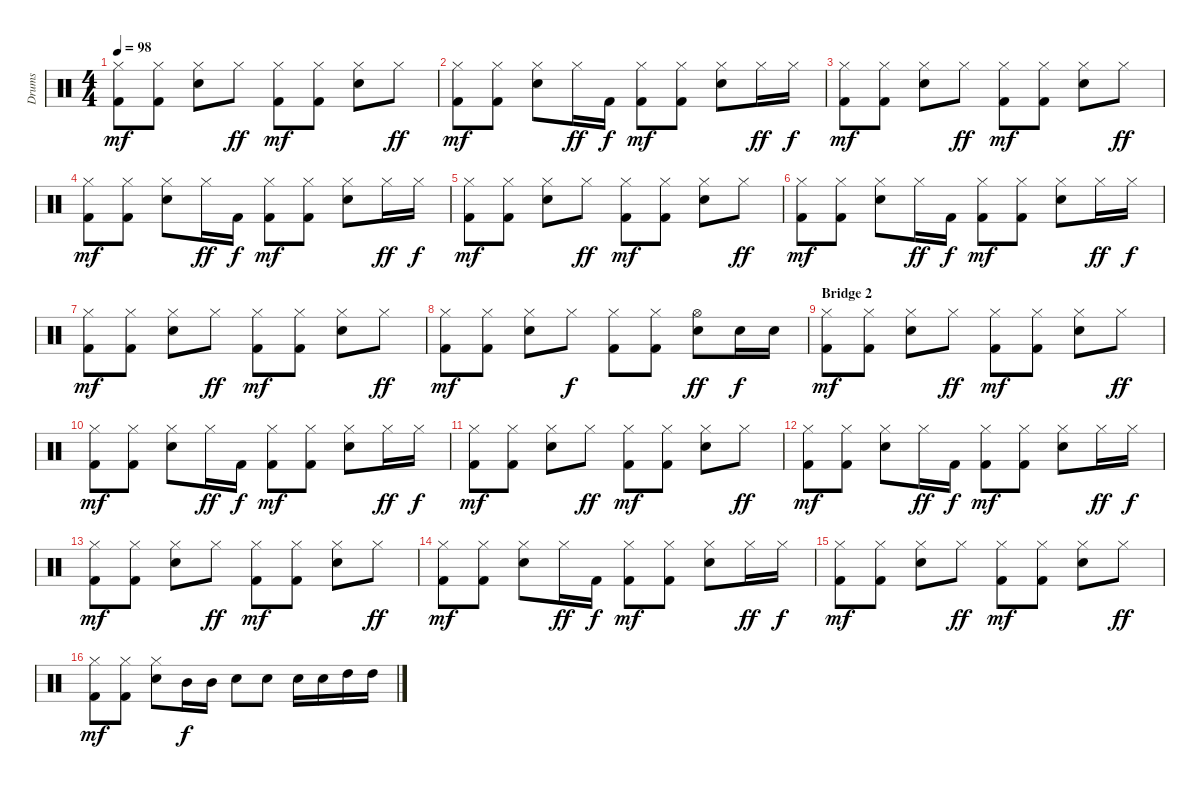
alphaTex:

\track ("Drums" "Drums") {instrument percussion}
\staff {score}
\articulation defaults
\ts (4 4)
\tempo 98
\clef neutral
\ks c
("Hi-Hat (closed)" "Kick (hit) 2").8{dy mf} ("Hi-Hat (closed)" "Kick (hit) 2").8 ("Hi-Hat (closed)" "Snare (hit) 2").8 "Hi-Hat (closed)".8{dy ff} ("Hi-Hat (closed)" "Kick (hit) 2").8{dy mf} ("Hi-Hat (closed)" "Kick (hit) 2").8 ("Hi-Hat (closed)" "Snare (hit) 2").8 "Hi-Hat (closed)".8{dy ff} |
("Hi-Hat (closed)" "Kick (hit) 2").8{dy mf} ("Hi-Hat (closed)" "Kick (hit) 2").8 ("Hi-Hat (closed)" "Snare (hit) 2").8 "Hi-Hat (closed)".16{dy ff} "Kick (hit) 2".16{dy f} ("Hi-Hat (closed)" "Kick (hit) 2").8{dy mf} ("Hi-Hat (closed)" "Kick (hit) 2").8 ("Hi-Hat (closed)" "Snare (hit) 2").8 "Hi-Hat (closed)".16{dy ff} "Hi-Hat (closed)".16{dy f} |
("Hi-Hat (closed)" "Kick (hit) 2").8{dy mf} ("Hi-Hat (closed)" "Kick (hit) 2").8 ("Hi-Hat (closed)" "Snare (hit) 2").8 "Hi-Hat (closed)".8{dy ff} ("Hi-Hat (closed)" "Kick (hit) 2").8{dy mf} ("Hi-Hat (closed)" "Kick (hit) 2").8 ("Hi-Hat (closed)" "Snare (hit) 2").8 "Hi-Hat (closed)".8{dy ff} |
("Hi-Hat (closed)" "Kick (hit) 2").8{dy mf} ("Hi-Hat (closed)" "Kick (hit) 2").8 ("Hi-Hat (closed)" "Snare (hit) 2").8 "Hi-Hat (closed)".16{dy ff} "Kick (hit) 2".16{dy f} ("Hi-Hat (closed)" "Kick (hit) 2").8{dy mf} ("Hi-Hat (closed)" "Kick (hit) 2").8 ("Hi-Hat (closed)" "Snare (hit) 2").8 "Hi-Hat (closed)".16{dy ff} "Hi-Hat (closed)".16{dy f} |
("Hi-Hat (closed)" "Kick (hit) 2").8{dy mf} ("Hi-Hat (closed)" "Kick (hit) 2").8 ("Hi-Hat (closed)" "Snare (hit) 2").8 "Hi-Hat (closed)".8{dy ff} ("Hi-Hat (closed)" "Kick (hit) 2").8{dy mf} ("Hi-Hat (closed)" "Kick (hit) 2").8 ("Hi-Hat (closed)" "Snare (hit) 2").8 "Hi-Hat (closed)".8{dy ff} |
("Hi-Hat (closed)" "Kick (hit) 2").8{dy mf} ("Hi-Hat (closed)" "Kick (hit) 2").8 ("Hi-Hat (closed)" "Snare (hit) 2").8 "Hi-Hat (closed)".16{dy ff} "Kick (hit) 2".16{dy f} ("Hi-Hat (closed)" "Kick (hit) 2").8{dy mf} ("Hi-Hat (closed)" "Kick (hit) 2").8 ("Hi-Hat (closed)" "Snare (hit) 2").8 "Hi-Hat (closed)".16{dy ff} "Hi-Hat (closed)".16{dy f} |
("Hi-Hat (closed)" "Kick (hit) 2").8{dy mf} ("Hi-Hat (closed)" "Kick (hit) 2").8 ("Hi-Hat (closed)" "Snare (hit) 2").8 "Hi-Hat (closed)".8{dy ff} ("Hi-Hat (closed)" "Kick (hit) 2").8{dy mf} ("Hi-Hat (closed)" "Kick (hit) 2").8 ("Hi-Hat (closed)" "Snare (hit) 2").8 "Hi-Hat (closed)".8{dy ff} |
("Hi-Hat (closed)" "Kick (hit) 2").8{dy mf} ("Hi-Hat (closed)" "Kick (hit) 2").8 ("Hi-Hat (closed)" "Snare (hit) 2").8 "Hi-Hat (closed)".8{dy f} ("Hi-Hat (closed)" "Kick (hit) 2").8 ("Hi-Hat (closed)" "Kick (hit) 2").8 ("Hi-Hat (open)" "Snare (hit) 2").8{dy ff} "Snare (hit) 2".16{dy f} "Snare (hit) 2".16 |
\section ("" "Bridge 2")
("Hi-Hat (closed)" "Kick (hit) 2").8{dy mf} ("Hi-Hat (closed)" "Kick (hit) 2").8 ("Hi-Hat (closed)" "Snare (hit) 2").8 "Hi-Hat (closed)".8{dy ff} ("Hi-Hat (closed)" "Kick (hit) 2").8{dy mf} ("Hi-Hat (closed)" "Kick (hit) 2").8 ("Hi-Hat (closed)" "Snare (hit) 2").8 "Hi-Hat (closed)".8{dy ff} |
("Hi-Hat (closed)" "Kick (hit) 2").8{dy mf} ("Hi-Hat (closed)" "Kick (hit) 2").8 ("Hi-Hat (closed)" "Snare (hit) 2").8 "Hi-Hat (closed)".16{dy ff} "Kick (hit) 2".16{dy f} ("Hi-Hat (closed)" "Kick (hit) 2").8{dy mf} ("Hi-Hat (closed)" "Kick (hit) 2").8 ("Hi-Hat (closed)" "Snare (hit) 2").8 "Hi-Hat (closed)".16{dy ff} "Hi-Hat (closed)".16{dy f} |
("Hi-Hat (closed)" "Kick (hit) 2").8{dy mf} ("Hi-Hat (closed)" "Kick (hit) 2").8 ("Hi-Hat (closed)" "Snare (hit) 2").8 "Hi-Hat (closed)".8{dy ff} ("Hi-Hat (closed)" "Kick (hit) 2").8{dy mf} ("Hi-Hat (closed)" "Kick (hit) 2").8 ("Hi-Hat (closed)" "Snare (hit) 2").8 "Hi-Hat (closed)".8{dy ff} |
("Hi-Hat (closed)" "Kick (hit) 2").8{dy mf} ("Hi-Hat (closed)" "Kick (hit) 2").8 ("Hi-Hat (closed)" "Snare (hit) 2").8 "Hi-Hat (closed)".16{dy ff} "Kick (hit) 2".16{dy f} ("Hi-Hat (closed)" "Kick (hit) 2").8{dy mf} ("Hi-Hat (closed)" "Kick (hit) 2").8 ("Hi-Hat (closed)" "Snare (hit) 2").8 "Hi-Hat (closed)".16{dy ff} "Hi-Hat (closed)".16{dy f} |
("Hi-Hat (closed)" "Kick (hit) 2").8{dy mf} ("Hi-Hat (closed)" "Kick (hit) 2").8 ("Hi-Hat (closed)" "Snare (hit) 2").8 "Hi-Hat (closed)".8{dy ff} ("Hi-Hat (closed)" "Kick (hit) 2").8{dy mf} ("Hi-Hat (closed)" "Kick (hit) 2").8 ("Hi-Hat (closed)" "Snare (hit) 2").8 "Hi-Hat (closed)".8{dy ff} |
("Hi-Hat (closed)" "Kick (hit) 2").8{dy mf} ("Hi-Hat (closed)" "Kick (hit) 2").8 ("Hi-Hat (closed)" "Snare (hit) 2").8 "Hi-Hat (closed)".16{dy ff} "Kick (hit) 2".16{dy f} ("Hi-Hat (closed)" "Kick (hit) 2").8{dy mf} ("Hi-Hat (closed)" "Kick (hit) 2").8 ("Hi-Hat (closed)" "Snare (hit) 2").8 "Hi-Hat (closed)".16{dy ff} "Hi-Hat (closed)".16{dy f} |
("Hi-Hat (closed)" "Kick (hit) 2").8{dy mf} ("Hi-Hat (closed)" "Kick (hit) 2").8 ("Hi-Hat (closed)" "Snare (hit) 2").8 "Hi-Hat (closed)".8{dy ff} ("Hi-Hat (closed)" "Kick (hit) 2").8{dy mf} ("Hi-Hat (closed)" "Kick (hit) 2").8 ("Hi-Hat (closed)" "Snare (hit) 2").8 "Hi-Hat (closed)".8{dy ff} |
("Hi-Hat (closed)" "Kick (hit) 2").8{dy mf} ("Hi-Hat (closed)" "Kick (hit) 2").8 ("Hi-Hat (closed)" "Snare (hit) 2").8 "Mid Tom (hit)".16{dy f} "Mid Tom (hit)".16 "Snare (hit) 2".8 "Snare (hit) 2".8 "Snare (hit) 2".16 "Snare (hit) 2".16 "High Tom (hit)".16 "High Tom (hit)".16
